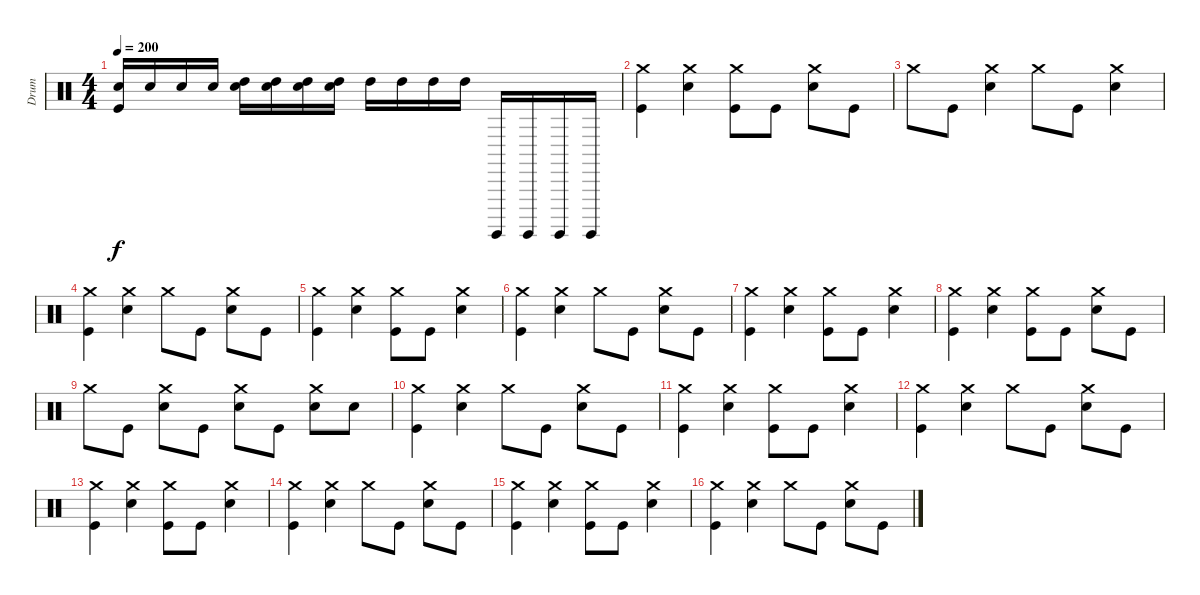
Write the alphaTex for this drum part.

\track ("Drum" "Drum") {instrument percussion}
\staff {score}
\articulation defaults
\ts (4 4)
\tempo 200
\clef neutral
\ks c
("Snare (hit) 2" "Kick (hit)").16{dy f} "Snare (hit) 2".16 "Snare (hit) 2".16 "Snare (hit) 2".16 ("High Tom (hit)" "Snare (hit) 2").16 ("High Tom (hit)" "Snare (hit) 2").16 ("High Tom (hit)" "Snare (hit) 2").16 ("High Tom (hit)" "Snare (hit) 2").16 "High Tom (hit)".16 "High Tom (hit)".16 "High Tom (hit)".16 "High Tom (hit)".16 "Surdo (hit)".16 "Surdo (hit)".16 "Surdo (hit)".16 "Surdo (hit)".16 |
("Crash medium (hit)" "Kick (hit)").4 ("Crash medium (hit)" "Snare (hit) 2").4 ("Crash medium (hit)" "Kick (hit)").8 "Kick (hit)".8 ("Crash medium (hit)" "Snare (hit) 2").8 "Kick (hit)".8 |
"Crash medium (hit)".8 "Kick (hit)".8 ("Crash medium (hit)" "Snare (hit) 2").4 "Crash medium (hit)".8 "Kick (hit)".8 ("Crash medium (hit)" "Snare (hit) 2").4 |
("Crash medium (hit)" "Kick (hit)").4 ("Crash medium (hit)" "Snare (hit) 2").4 "Crash medium (hit)".8 "Kick (hit)".8 ("Crash medium (hit)" "Snare (hit) 2").8 "Kick (hit)".8 |
("Crash medium (hit)" "Kick (hit)").4 ("Crash medium (hit)" "Snare (hit) 2").4 ("Crash medium (hit)" "Kick (hit)").8 "Kick (hit)".8 ("Crash medium (hit)" "Snare (hit) 2").4 |
("Crash medium (hit)" "Kick (hit)").4 ("Crash medium (hit)" "Snare (hit) 2").4 "Crash medium (hit)".8 "Kick (hit)".8 ("Crash medium (hit)" "Snare (hit) 2").8 "Kick (hit)".8 |
("Crash medium (hit)" "Kick (hit)").4 ("Crash medium (hit)" "Snare (hit) 2").4 ("Crash medium (hit)" "Kick (hit)").8 "Kick (hit)".8 ("Crash medium (hit)" "Snare (hit) 2").4 |
("Crash medium (hit)" "Kick (hit)").4 ("Crash medium (hit)" "Snare (hit) 2").4 ("Crash medium (hit)" "Kick (hit)").8 "Kick (hit)".8 ("Crash medium (hit)" "Snare (hit) 2").8 "Kick (hit)".8 |
"Crash medium (hit)".8 "Kick (hit)".8 ("Crash medium (hit)" "Snare (hit) 2").8 "Kick (hit)".8 ("Crash medium (hit)" "Snare (hit) 2").8 "Kick (hit)".8 ("Crash medium (hit)" "Snare (hit) 2").8 "Snare (hit) 2".8 |
("Crash medium (hit)" "Kick (hit)").4 ("Crash medium (hit)" "Snare (hit) 2").4 "Crash medium (hit)".8 "Kick (hit)".8 ("Crash medium (hit)" "Snare (hit) 2").8 "Kick (hit)".8 |
("Crash medium (hit)" "Kick (hit)").4 ("Crash medium (hit)" "Snare (hit) 2").4 ("Crash medium (hit)" "Kick (hit)").8 "Kick (hit)".8 ("Crash medium (hit)" "Snare (hit) 2").4 |
("Crash medium (hit)" "Kick (hit)").4 ("Crash medium (hit)" "Snare (hit) 2").4 "Crash medium (hit)".8 "Kick (hit)".8 ("Crash medium (hit)" "Snare (hit) 2").8 "Kick (hit)".8 |
("Crash medium (hit)" "Kick (hit)").4 ("Crash medium (hit)" "Snare (hit) 2").4 ("Crash medium (hit)" "Kick (hit)").8 "Kick (hit)".8 ("Crash medium (hit)" "Snare (hit) 2").4 |
("Crash medium (hit)" "Kick (hit)").4 ("Crash medium (hit)" "Snare (hit) 2").4 "Crash medium (hit)".8 "Kick (hit)".8 ("Crash medium (hit)" "Snare (hit) 2").8 "Kick (hit)".8 |
("Crash medium (hit)" "Kick (hit)").4 ("Crash medium (hit)" "Snare (hit) 2").4 ("Crash medium (hit)" "Kick (hit)").8 "Kick (hit)".8 ("Crash medium (hit)" "Snare (hit) 2").4 |
("Crash medium (hit)" "Kick (hit)").4 ("Crash medium (hit)" "Snare (hit) 2").4 "Crash medium (hit)".8 "Kick (hit)".8 ("Crash medium (hit)" "Snare (hit) 2").8 "Kick (hit)".8
